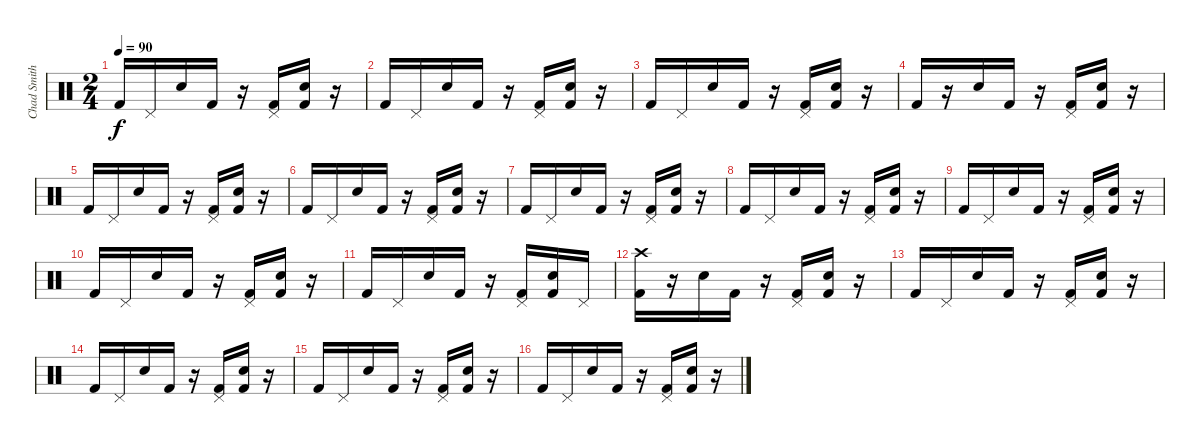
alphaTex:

\track ("Chad Smith" "Chad Smith") {instrument percussion}
\staff {score}
\articulation defaults
\ts (2 4)
\tempo 90
\clef neutral
\ks c "Kick (hit) 2".16{dy f} "Pedal Hi-Hat (hit)".16 "Electric Snare (hit)".16 "Kick (hit) 2".16
r.16 ("Pedal Hi-Hat (hit)" "Kick (hit) 2").16 ("Electric Snare (hit)" "Kick (hit) 2").16 r.16 |
"Kick (hit) 2".16 "Pedal Hi-Hat (hit)".16 "Electric Snare (hit)".16 "Kick (hit) 2".16 r.16 ("Pedal Hi-Hat (hit)" "Kick (hit) 2").16 ("Electric Snare (hit)" "Kick (hit) 2").16 r.16 |
"Kick (hit) 2".16 "Pedal Hi-Hat (hit)".16 "Electric Snare (hit)".16 "Kick (hit) 2".16 r.16 ("Pedal Hi-Hat (hit)" "Kick (hit) 2").16 ("Electric Snare (hit)" "Kick (hit) 2").16 r.16 |
"Kick (hit) 2".16 r.16 "Electric Snare (hit)".16 "Kick (hit) 2".16 r.16 ("Pedal Hi-Hat (hit)" "Kick (hit) 2").16 ("Electric Snare (hit)" "Kick (hit) 2").16 r.16 |
"Kick (hit) 2".16 "Pedal Hi-Hat (hit)".16 "Electric Snare (hit)".16 "Kick (hit) 2".16 r.16 ("Pedal Hi-Hat (hit)" "Kick (hit) 2").16 ("Electric Snare (hit)" "Kick (hit) 2").16 r.16 |
"Kick (hit) 2".16 "Pedal Hi-Hat (hit)".16 "Electric Snare (hit)".16 "Kick (hit) 2".16 r.16 ("Pedal Hi-Hat (hit)" "Kick (hit) 2").16 ("Electric Snare (hit)" "Kick (hit) 2").16 r.16 |
"Kick (hit) 2".16 "Pedal Hi-Hat (hit)".16 "Electric Snare (hit)".16 "Kick (hit) 2".16 r.16 ("Pedal Hi-Hat (hit)" "Kick (hit) 2").16 ("Electric Snare (hit)" "Kick (hit) 2").16 r.16 |
"Kick (hit) 2".16 "Pedal Hi-Hat (hit)".16 "Electric Snare (hit)".16 "Kick (hit) 2".16 r.16 ("Pedal Hi-Hat (hit)" "Kick (hit) 2").16 ("Electric Snare (hit)" "Kick (hit) 2").16 r.16 |
"Kick (hit) 2".16 "Pedal Hi-Hat (hit)".16 "Electric Snare (hit)".16 "Kick (hit) 2".16 r.16 ("Pedal Hi-Hat (hit)" "Kick (hit) 2").16 ("Electric Snare (hit)" "Kick (hit) 2").16 r.16 |
"Kick (hit) 2".16 "Pedal Hi-Hat (hit)".16 "Electric Snare (hit)".16 "Kick (hit) 2".16 r.16 ("Pedal Hi-Hat (hit)" "Kick (hit) 2").16 ("Electric Snare (hit)" "Kick (hit) 2").16 r.16 |
"Kick (hit) 2".16 "Pedal Hi-Hat (hit)".16 "Electric Snare (hit)".16 "Kick (hit) 2".16 r.16 ("Pedal Hi-Hat (hit)" "Kick (hit) 2").16 ("Electric Snare (hit)" "Kick (hit) 2").16 "Pedal Hi-Hat (hit)".16 |
("Crash high (hit)" "Kick (hit) 2").16 r.16 "Electric Snare (hit)".16 "Kick (hit) 2".16 r.16 ("Pedal Hi-Hat (hit)" "Kick (hit) 2").16 ("Electric Snare (hit)" "Kick (hit) 2").16 r.16 |
"Kick (hit) 2".16 "Pedal Hi-Hat (hit)".16 "Electric Snare (hit)".16 "Kick (hit) 2".16 r.16 ("Pedal Hi-Hat (hit)" "Kick (hit) 2").16 ("Electric Snare (hit)" "Kick (hit) 2").16 r.16 |
"Kick (hit) 2".16 "Pedal Hi-Hat (hit)".16 "Electric Snare (hit)".16 "Kick (hit) 2".16 r.16 ("Pedal Hi-Hat (hit)" "Kick (hit) 2").16 ("Electric Snare (hit)" "Kick (hit) 2").16 r.16 |
"Kick (hit) 2".16 "Pedal Hi-Hat (hit)".16 "Electric Snare (hit)".16 "Kick (hit) 2".16 r.16 ("Pedal Hi-Hat (hit)" "Kick (hit) 2").16 ("Electric Snare (hit)" "Kick (hit) 2").16 r.16 |
"Kick (hit) 2".16 "Pedal Hi-Hat (hit)".16 "Electric Snare (hit)".16 "Kick (hit) 2".16 r.16 ("Pedal Hi-Hat (hit)" "Kick (hit) 2").16 ("Electric Snare (hit)" "Kick (hit) 2").16 r.16
